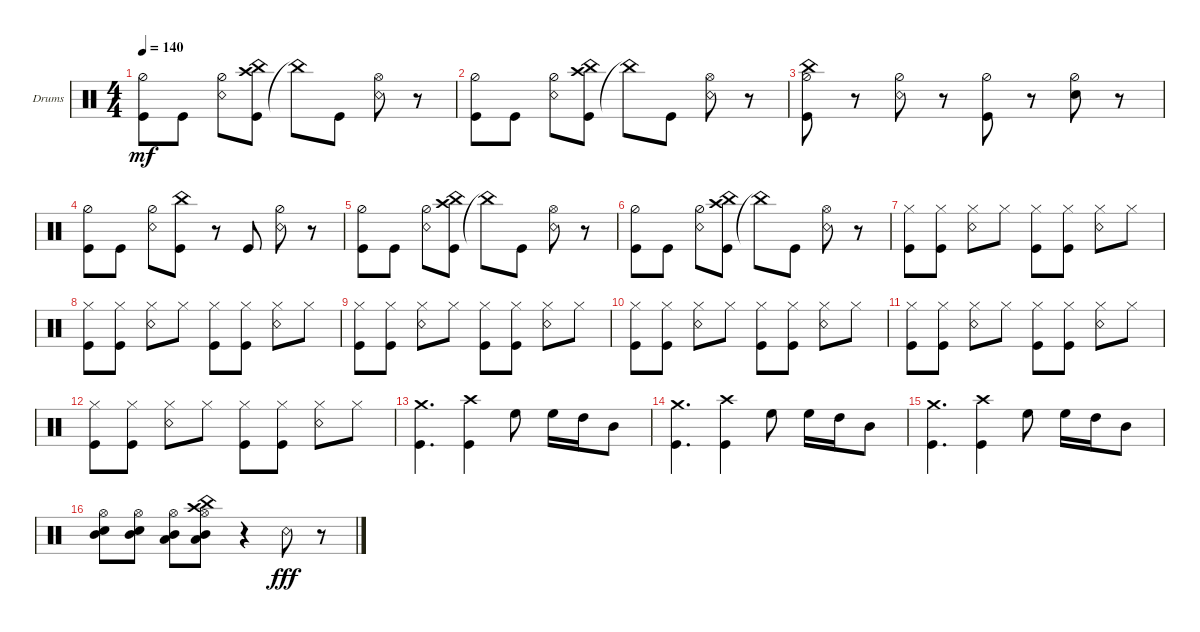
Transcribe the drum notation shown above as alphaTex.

\defaultSystemsLayout 4
\bracketExtendMode groupsimilarinstruments
\firstSystemTrackNameOrientation horizontal
\otherSystemsTrackNameOrientation horizontal
\track ("Drumkit" "Drums") {instrument percussion}
\staff {score}
\articulation defaults
\ts (4 4)
\tempo 140
\clef neutral
\ks c
("Kick (hit)" "Hi-Hat (half)").8{dy mf} "Kick (hit)".8 ("Snare (rim shot)" "Hi-Hat (half)").8 ("Kick (hit)" "China (hit)" "Crash high (hit)").8 "China (hit)"{t}.8 "Kick (hit)".8 ("Snare (rim shot)" "Hi-Hat (open)").8 r.8 |
("Kick (hit)" "Hi-Hat (half)").8 "Kick (hit)".8 ("Snare (rim shot)" "Hi-Hat (half)").8 ("Kick (hit)" "China (hit)" "Crash high (hit)").8 "China (hit)"{t}.8 "Kick (hit)".8 ("Snare (rim shot)" "Hi-Hat (open)").8 r.8 |
("Kick (hit)" "Hi-Hat (half)" "China (hit)").8 r.8 ("Snare (rim shot)" "Hi-Hat (half)").8 r.8 ("Kick (hit)" "Hi-Hat (half)").8 r.8 ("Snare (hit) 2" "Hi-Hat (half)").8 r.8 |
("Kick (hit)" "Hi-Hat (half)").8 "Kick (hit)".8 ("Snare (rim shot)" "Hi-Hat (half)").8 ("Kick (hit)" "China (hit)").8 r.8 "Kick (hit)".8 ("Snare (rim shot)" "Hi-Hat (half)").8 r.8 |
("Kick (hit)" "Hi-Hat (half)").8 "Kick (hit)".8 ("Snare (rim shot)" "Hi-Hat (half)").8 ("Kick (hit)" "China (hit)" "Crash high (hit)").8 "China (hit)"{t}.8 "Kick (hit)".8 ("Snare (rim shot)" "Hi-Hat (open)").8 r.8 |
("Kick (hit)" "Hi-Hat (half)").8 "Kick (hit)".8 ("Snare (rim shot)" "Hi-Hat (half)").8 ("Kick (hit)" "China (hit)" "Crash high (hit)").8 "China (hit)"{t}.8 "Kick (hit)".8 ("Snare (rim shot)" "Hi-Hat (open)").8 r.8 |
("Hi-Hat (closed)" "Kick (hit)").8 ("Hi-Hat (closed)" "Kick (hit)").8 ("Hi-Hat (closed)" "Snare (rim shot)").8 "Hi-Hat (closed)".8 ("Hi-Hat (closed)" "Kick (hit)").8 ("Hi-Hat (closed)" "Kick (hit)").8 ("Hi-Hat (closed)" "Snare (rim shot)").8 "Hi-Hat (closed)".8 |
("Hi-Hat (closed)" "Kick (hit)").8 ("Hi-Hat (closed)" "Kick (hit)").8 ("Hi-Hat (closed)" "Snare (rim shot)").8 "Hi-Hat (closed)".8 ("Hi-Hat (closed)" "Kick (hit)").8 ("Hi-Hat (closed)" "Kick (hit)").8 ("Hi-Hat (closed)" "Snare (rim shot)").8 "Hi-Hat (closed)".8 |
("Hi-Hat (closed)" "Kick (hit)").8 ("Hi-Hat (closed)" "Kick (hit)").8 ("Hi-Hat (closed)" "Snare (rim shot)").8 "Hi-Hat (closed)".8 ("Hi-Hat (closed)" "Kick (hit)").8 ("Hi-Hat (closed)" "Kick (hit)").8 ("Hi-Hat (closed)" "Snare (rim shot)").8 "Hi-Hat (closed)".8 |
("Hi-Hat (closed)" "Kick (hit)").8 ("Hi-Hat (closed)" "Kick (hit)").8 ("Hi-Hat (closed)" "Snare (rim shot)").8 "Hi-Hat (closed)".8 ("Hi-Hat (closed)" "Kick (hit)").8 ("Hi-Hat (closed)" "Kick (hit)").8 ("Hi-Hat (closed)" "Snare (rim shot)").8 "Hi-Hat (closed)".8 |
("Hi-Hat (closed)" "Kick (hit)").8 ("Hi-Hat (closed)" "Kick (hit)").8 ("Hi-Hat (closed)" "Snare (rim shot)").8 "Hi-Hat (closed)".8 ("Hi-Hat (closed)" "Kick (hit)").8 ("Hi-Hat (closed)" "Kick (hit)").8 ("Hi-Hat (closed)" "Snare (rim shot)").8 "Hi-Hat (closed)".8 |
("Hi-Hat (closed)" "Kick (hit)").8 ("Hi-Hat (closed)" "Kick (hit)").8 ("Hi-Hat (closed)" "Snare (rim shot)").8 "Hi-Hat (closed)".8 ("Hi-Hat (closed)" "Kick (hit)").8 ("Hi-Hat (closed)" "Kick (hit)").8 ("Hi-Hat (closed)" "Snare (rim shot)").8 "Hi-Hat (closed)".8 |
("Kick (hit)" "Crash medium (hit)").4{d} ("Kick (hit)" "Crash high (hit)").4 "High Floor Tom (hit)".8 "High Floor Tom (hit)".16 "High Tom (hit)".16 "Mid Tom (hit)".8 |
("Kick (hit)" "Crash medium (hit)").4{d} ("Kick (hit)" "Crash high (hit)").4 "High Floor Tom (hit)".8 "High Floor Tom (hit)".16 "High Tom (hit)".16 "Mid Tom (hit)".8 |
("Kick (hit)" "Crash medium (hit)").4{d} ("Kick (hit)" "Crash high (hit)").4 "High Floor Tom (hit)".8 "High Floor Tom (hit)".16 "High Tom (hit)".16 "Mid Tom (hit)".8 |
("Mid Tom (hit)" "Hi-Hat (open)" "Snare (hit) 2").8 ("Mid Tom (hit)" "Hi-Hat (open)" "Snare (hit) 2").8 ("Mid Tom (hit)" "Hi-Hat (open)" "Low Tom (hit)").8 ("Mid Tom (hit)" "Hi-Hat (open)" "Crash high (hit)" "Low Tom (hit)" "China (hit)").8 r.4 "Snare (rim shot)".8{dy fff} r.8
